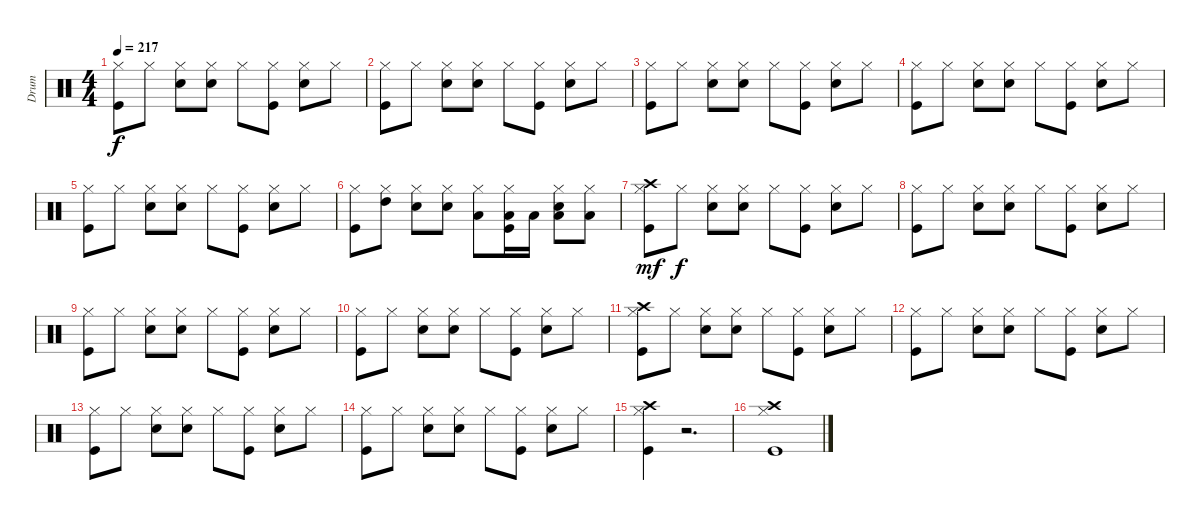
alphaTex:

\track ("Drum" "Drum") {instrument percussion}
\staff {score}
\articulation defaults
\ts (4 4)
\tempo 217
\clef neutral
\ks c
("Kick (hit)" "Hi-Hat (closed)").8{dy f} "Hi-Hat (closed)".8 ("Snare (hit) 2" "Hi-Hat (closed)").8 ("Snare (hit) 2" "Hi-Hat (closed)").8 "Hi-Hat (closed)".8 ("Kick (hit)" "Hi-Hat (closed)").8 ("Snare (hit) 2" "Hi-Hat (closed)").8 "Hi-Hat (closed)".8 |
("Kick (hit)" "Hi-Hat (closed)").8 "Hi-Hat (closed)".8 ("Snare (hit) 2" "Hi-Hat (closed)").8 ("Snare (hit) 2" "Hi-Hat (closed)").8 "Hi-Hat (closed)".8 ("Kick (hit)" "Hi-Hat (closed)").8 ("Snare (hit) 2" "Hi-Hat (closed)").8 "Hi-Hat (closed)".8 |
("Kick (hit)" "Hi-Hat (closed)").8 "Hi-Hat (closed)".8 ("Snare (hit) 2" "Hi-Hat (closed)").8 ("Snare (hit) 2" "Hi-Hat (closed)").8 "Hi-Hat (closed)".8 ("Kick (hit)" "Hi-Hat (closed)").8 ("Snare (hit) 2" "Hi-Hat (closed)").8 "Hi-Hat (closed)".8 |
("Kick (hit)" "Hi-Hat (closed)").8 "Hi-Hat (closed)".8 ("Snare (hit) 2" "Hi-Hat (closed)").8 ("Snare (hit) 2" "Hi-Hat (closed)").8 "Hi-Hat (closed)".8 ("Kick (hit)" "Hi-Hat (closed)").8 ("Snare (hit) 2" "Hi-Hat (closed)").8 "Hi-Hat (closed)".8 |
("Kick (hit)" "Hi-Hat (closed)").8 "Hi-Hat (closed)".8 ("Snare (hit) 2" "Hi-Hat (closed)").8 ("Snare (hit) 2" "Hi-Hat (closed)").8 "Hi-Hat (closed)".8 ("Kick (hit)" "Hi-Hat (closed)").8 ("Snare (hit) 2" "Hi-Hat (closed)").8 "Hi-Hat (closed)".8 |
("Kick (hit)" "Hi-Hat (closed)").8 ("Hi-Hat (closed)" "High Tom (hit)").8 ("Snare (hit) 2" "Hi-Hat (closed)").8 ("Snare (hit) 2" "Hi-Hat (closed)").8 ("Hi-Hat (closed)" "Low Tom (hit)").8 ("Kick (hit)" "Hi-Hat (closed)" "Low Tom (hit)").16 "Low Tom (hit)".16 ("Snare (hit) 2" "Hi-Hat (closed)" "Low Tom (hit)").8 ("Hi-Hat (closed)" "Low Floor Tom (hit)").8 |
("Kick (hit)" "Hi-Hat (closed)" "Crash high (hit)").8{dy mf} "Hi-Hat (closed)".8{dy f} ("Snare (hit) 2" "Hi-Hat (closed)").8 ("Snare (hit) 2" "Hi-Hat (closed)").8 "Hi-Hat (closed)".8 ("Kick (hit)" "Hi-Hat (closed)").8 ("Snare (hit) 2" "Hi-Hat (closed)").8 "Hi-Hat (closed)".8 |
("Kick (hit)" "Hi-Hat (closed)").8 "Hi-Hat (closed)".8 ("Snare (hit) 2" "Hi-Hat (closed)").8 ("Snare (hit) 2" "Hi-Hat (closed)").8 "Hi-Hat (closed)".8 ("Kick (hit)" "Hi-Hat (closed)").8 ("Snare (hit) 2" "Hi-Hat (closed)").8 "Hi-Hat (closed)".8 |
("Kick (hit)" "Hi-Hat (closed)").8 "Hi-Hat (closed)".8 ("Snare (hit) 2" "Hi-Hat (closed)").8 ("Snare (hit) 2" "Hi-Hat (closed)").8 "Hi-Hat (closed)".8 ("Kick (hit)" "Hi-Hat (closed)").8 ("Snare (hit) 2" "Hi-Hat (closed)").8 "Hi-Hat (closed)".8 |
("Kick (hit)" "Hi-Hat (closed)").8 "Hi-Hat (closed)".8 ("Snare (hit) 2" "Hi-Hat (closed)").8 ("Snare (hit) 2" "Hi-Hat (closed)").8 "Hi-Hat (closed)".8 ("Kick (hit)" "Hi-Hat (closed)").8 ("Snare (hit) 2" "Hi-Hat (closed)").8 "Hi-Hat (closed)".8 |
("Kick (hit)" "Hi-Hat (closed)" "Crash high (hit)").8 "Hi-Hat (closed)".8 ("Snare (hit) 2" "Hi-Hat (closed)").8 ("Snare (hit) 2" "Hi-Hat (closed)").8 "Hi-Hat (closed)".8 ("Kick (hit)" "Hi-Hat (closed)").8 ("Snare (hit) 2" "Hi-Hat (closed)").8 "Hi-Hat (closed)".8 |
("Kick (hit)" "Hi-Hat (closed)").8 "Hi-Hat (closed)".8 ("Snare (hit) 2" "Hi-Hat (closed)").8 ("Snare (hit) 2" "Hi-Hat (closed)").8 "Hi-Hat (closed)".8 ("Kick (hit)" "Hi-Hat (closed)").8 ("Snare (hit) 2" "Hi-Hat (closed)").8 "Hi-Hat (closed)".8 |
("Kick (hit)" "Hi-Hat (closed)").8 "Hi-Hat (closed)".8 ("Snare (hit) 2" "Hi-Hat (closed)").8 ("Snare (hit) 2" "Hi-Hat (closed)").8 "Hi-Hat (closed)".8 ("Kick (hit)" "Hi-Hat (closed)").8 ("Snare (hit) 2" "Hi-Hat (closed)").8 "Hi-Hat (closed)".8 |
("Kick (hit)" "Hi-Hat (closed)").8 "Hi-Hat (closed)".8 ("Snare (hit) 2" "Hi-Hat (closed)").8 ("Snare (hit) 2" "Hi-Hat (closed)").8 "Hi-Hat (closed)".8 ("Kick (hit)" "Hi-Hat (closed)").8 ("Snare (hit) 2" "Hi-Hat (closed)").8 "Hi-Hat (closed)".8 |
("Kick (hit)" "Hi-Hat (closed)" "Crash high (hit)").4 r.2{d} |
("Kick (hit)" "Hi-Hat (closed)" "Crash high (hit)").1
